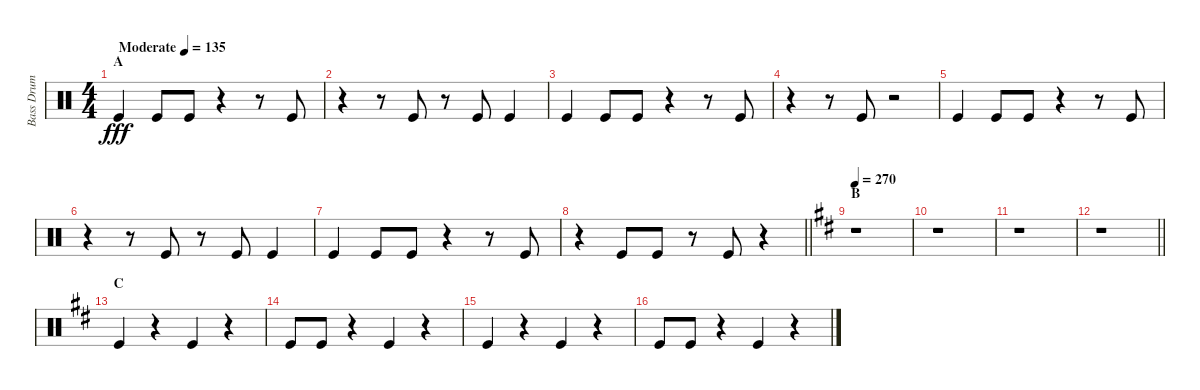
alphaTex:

\track ("Bass Drum" "Bass Drum") {instrument percussion}
\staff {score}
\articulation defaults
\ts (4 4)
\section ("" "A")
\tempo (135 "Moderate")
\clef neutral
\ks c "Kick (hit)".4{dy fff} "Kick (hit)".8 "Kick (hit)".8
r.4 r.8 "Kick (hit)".8 |
r.4 r.8 "Kick (hit)".8 r.8 "Kick (hit)".8 "Kick (hit)".4 |
"Kick (hit)".4 "Kick (hit)".8 "Kick (hit)".8 r.4 r.8 "Kick (hit)".8 |
r.4 r.8 "Kick (hit)".8 r.2 |
"Kick (hit)".4 "Kick (hit)".8 "Kick (hit)".8 r.4 r.8 "Kick (hit)".8 |
r.4 r.8 "Kick (hit)".8 r.8 "Kick (hit)".8 "Kick (hit)".4 |
"Kick (hit)".4 "Kick (hit)".8 "Kick (hit)".8 r.4 r.8 "Kick (hit)".8 |
\barLineRight lightlight
r.4 "Kick (hit)".8 "Kick (hit)".8 r.8 "Kick (hit)".8 r.4 |
\section ("" "B")
\tempo 270
\ks d
r.1 |
r.1 |
r.1 |
\barLineRight lightlight
r.1 |
\section ("" "C")
"Kick (hit)".4 r.4 "Kick (hit)".4 r.4 |
"Kick (hit)".8 "Kick (hit)".8 r.4 "Kick (hit)".4 r.4 |
"Kick (hit)".4 r.4 "Kick (hit)".4 r.4 |
"Kick (hit)".8 "Kick (hit)".8 r.4 "Kick (hit)".4 r.4
